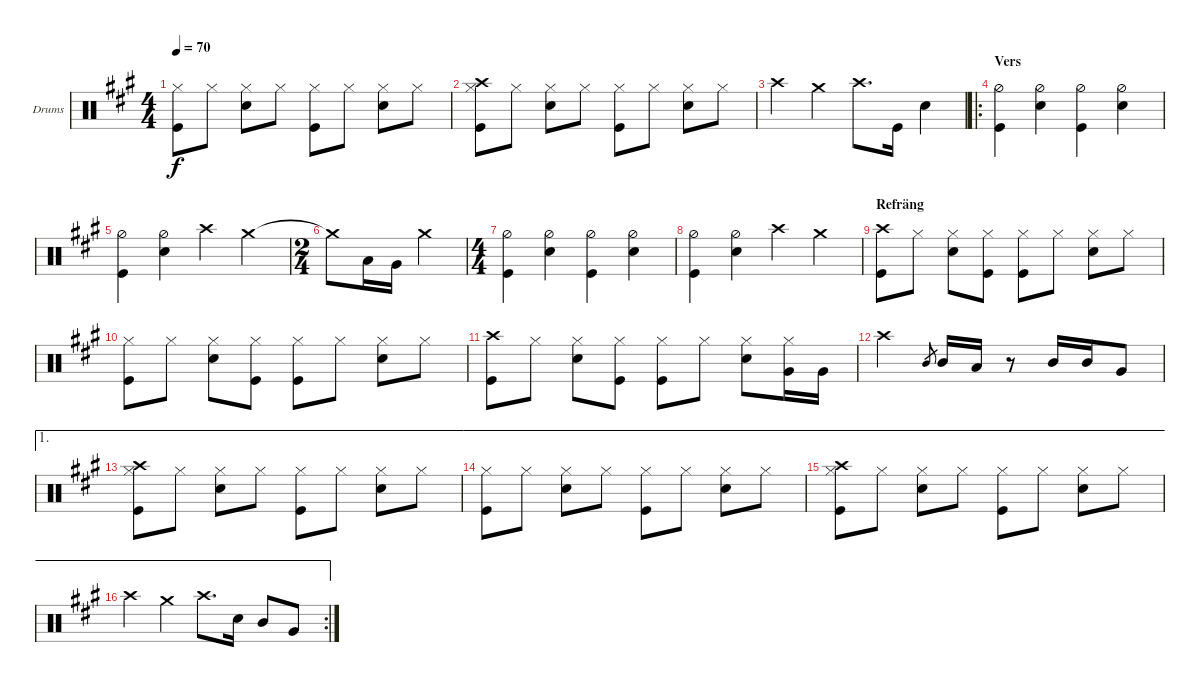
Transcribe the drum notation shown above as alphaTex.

\defaultSystemsLayout 4
\bracketExtendMode groupsimilarinstruments
\firstSystemTrackNameOrientation horizontal
\otherSystemsTrackNameOrientation horizontal
\track ("Drumkit" "Drums") {instrument percussion}
\staff {score}
\articulation defaults
\ts (4 4)
\tempo 70
\clef neutral
\ks f#minor
("Hi-Hat (closed)" "Kick (hit)").8{dy f} "Hi-Hat (closed)".8 ("Hi-Hat (closed)" "Snare (hit) 2").8 "Hi-Hat (closed)".8 ("Hi-Hat (closed)" "Kick (hit)").8 "Hi-Hat (closed)".8 ("Hi-Hat (closed)" "Snare (hit) 2").8 "Hi-Hat (closed)".8 |
("Hi-Hat (closed)" "Kick (hit)" "Crash high (hit)").8 "Hi-Hat (closed)".8 ("Hi-Hat (closed)" "Snare (hit) 2").8 "Hi-Hat (closed)".8 ("Hi-Hat (closed)" "Kick (hit)").8 "Hi-Hat (closed)".8 ("Hi-Hat (closed)" "Snare (hit) 2").8 "Hi-Hat (closed)".8 |
"Crash high (hit)".4 "Crash medium (hit)".4 "Crash high (hit)".8{d} "Kick (hit)".16 "Snare (hit) 2".4 |
\ro
\section ("" "Vers")
("Hi-Hat (half)" "Kick (hit)").4 ("Hi-Hat (half)" "Snare (hit) 2").4 ("Hi-Hat (half)" "Kick (hit)").4 ("Hi-Hat (half)" "Snare (hit) 2").4 |
("Hi-Hat (half)" "Kick (hit)").4 ("Hi-Hat (half)" "Snare (hit) 2").4 "Crash high (hit)".4 "Crash medium (hit)".4 |
\ts (2 4)
"Crash medium (hit)"{t}.8 "Low Tom (hit)".16 "Very Low Tom (hit)".16 "Crash medium (hit)".4 |
\ts (4 4)
("Hi-Hat (half)" "Kick (hit)").4 ("Hi-Hat (half)" "Snare (hit) 2").4 ("Hi-Hat (half)" "Kick (hit)").4 ("Hi-Hat (half)" "Snare (hit) 2").4 |
("Hi-Hat (half)" "Kick (hit)").4 ("Hi-Hat (half)" "Snare (hit) 2").4 "Crash high (hit)".4 "Crash medium (hit)".4 |
\section ("" "Refräng")
("Crash high (hit)" "Kick (hit)").8 "Hi-Hat (closed)".8 ("Snare (hit) 2" "Hi-Hat (closed)").8 ("Kick (hit)" "Hi-Hat (closed)").8 ("Kick (hit)" "Hi-Hat (closed)").8 "Hi-Hat (closed)".8 ("Snare (hit) 2" "Hi-Hat (closed)").8 "Hi-Hat (closed)".8 |
("Hi-Hat (closed)" "Kick (hit)").8 "Hi-Hat (closed)".8 ("Snare (hit) 2" "Hi-Hat (closed)").8 ("Kick (hit)" "Hi-Hat (closed)").8 ("Kick (hit)" "Hi-Hat (closed)").8 "Hi-Hat (closed)".8 ("Snare (hit) 2" "Hi-Hat (closed)").8 "Hi-Hat (closed)".8 |
("Crash high (hit)" "Kick (hit)").8 "Hi-Hat (closed)".8 ("Snare (hit) 2" "Hi-Hat (closed)").8 ("Kick (hit)" "Hi-Hat (closed)").8 ("Kick (hit)" "Hi-Hat (closed)").8 "Hi-Hat (closed)".8 ("Snare (hit) 2" "Hi-Hat (closed)").8 ("Hi-Hat (closed)" "Very Low Tom (hit)").16 "Very Low Tom (hit)".16 |
"Crash high (hit)".2 "Mid Tom (hit)".8{gr} "Mid Tom (hit)".16 "Low Tom (hit)".16 r.8 "Mid Tom (hit)".16 "Mid Tom (hit)".16 "Very Low Tom (hit)".8 |
\ae 1
("Hi-Hat (closed)" "Kick (hit)" "Crash high (hit)").8 "Hi-Hat (closed)".8 ("Hi-Hat (closed)" "Snare (hit) 2").8 "Hi-Hat (closed)".8 ("Hi-Hat (closed)" "Kick (hit)").8 "Hi-Hat (closed)".8 ("Hi-Hat (closed)" "Snare (hit) 2").8 "Hi-Hat (closed)".8 |
\ae 1
("Hi-Hat (closed)" "Kick (hit)").8 "Hi-Hat (closed)".8 ("Hi-Hat (closed)" "Snare (hit) 2").8 "Hi-Hat (closed)".8 ("Hi-Hat (closed)" "Kick (hit)").8 "Hi-Hat (closed)".8 ("Hi-Hat (closed)" "Snare (hit) 2").8 "Hi-Hat (closed)".8 |
\ae 1
("Hi-Hat (closed)" "Kick (hit)" "Crash high (hit)").8 "Hi-Hat (closed)".8 ("Hi-Hat (closed)" "Snare (hit) 2").8 "Hi-Hat (closed)".8 ("Hi-Hat (closed)" "Kick (hit)").8 "Hi-Hat (closed)".8 ("Hi-Hat (closed)" "Snare (hit) 2").8 "Hi-Hat (closed)".8 |
\ae 1
\rc 2 "Crash high (hit)".4 "Crash medium (hit)".4 "Crash high (hit)".8{d} "Snare (hit) 2".16 "Mid Tom (hit)".8 "Very Low Tom (hit)".8
